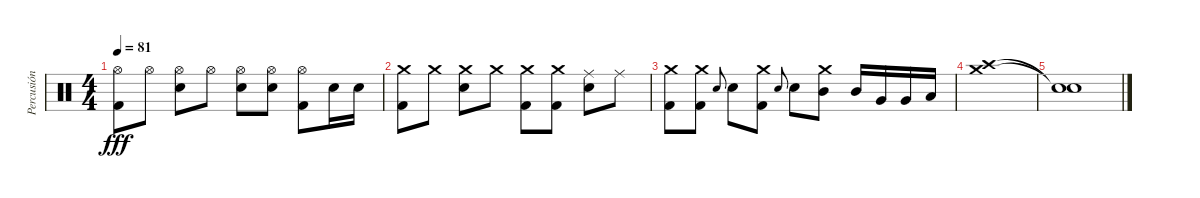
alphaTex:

\track ("Percusión" "Percusión") {instrument percussion}
\staff {score}
\articulation defaults
\ts (4 4)
\tempo 81
\clef neutral
\ks c
("Hi-Hat (open)" "Kick (hit) 2").8{dy fff} "Hi-Hat (open)".8 ("Hi-Hat (open)" "Electric Snare (hit)").8 "Hi-Hat (open)".8 ("Hi-Hat (open)" "Electric Snare (hit)").8 ("Hi-Hat (open)" "Electric Snare (hit)").8 ("Hi-Hat (open)" "Kick (hit) 2").8 "Electric Snare (hit)".16 "Electric Snare (hit)".16 |
("Crash medium (hit)" "Kick (hit) 2").8 "Crash medium (hit)".8 ("Crash medium (hit)" "Electric Snare (hit)").8 "Crash medium (hit)".8 ("Crash medium (hit)" "Kick (hit) 2").8 ("Crash medium (hit)" "Kick (hit) 2").8 ("Ride (middle)" "Electric Snare (hit)").8 "Ride (middle)".8 |
("Crash medium (hit)" "Kick (hit) 2").8 ("Crash medium (hit)" "Kick (hit) 2").8 "Electric Snare (hit)".8{gr onbeat} "Electric Snare (hit)".8 ("Crash medium (hit)" "Kick (hit) 2").8 "Electric Snare (hit)".8{gr onbeat} "Electric Snare (hit)".8 ("Crash medium (hit)" "Mid Tom (hit)").8 "Mid Tom (hit)".16 "Very Low Tom (hit)".16 "Very Low Tom (hit)".16 "Low Floor Tom (hit)".16 |
("Crash high (hit)" "Crash medium (hit)").1{volume 0} |
("Snare (hit)"{t} "Snare (hit)"{t}).1
